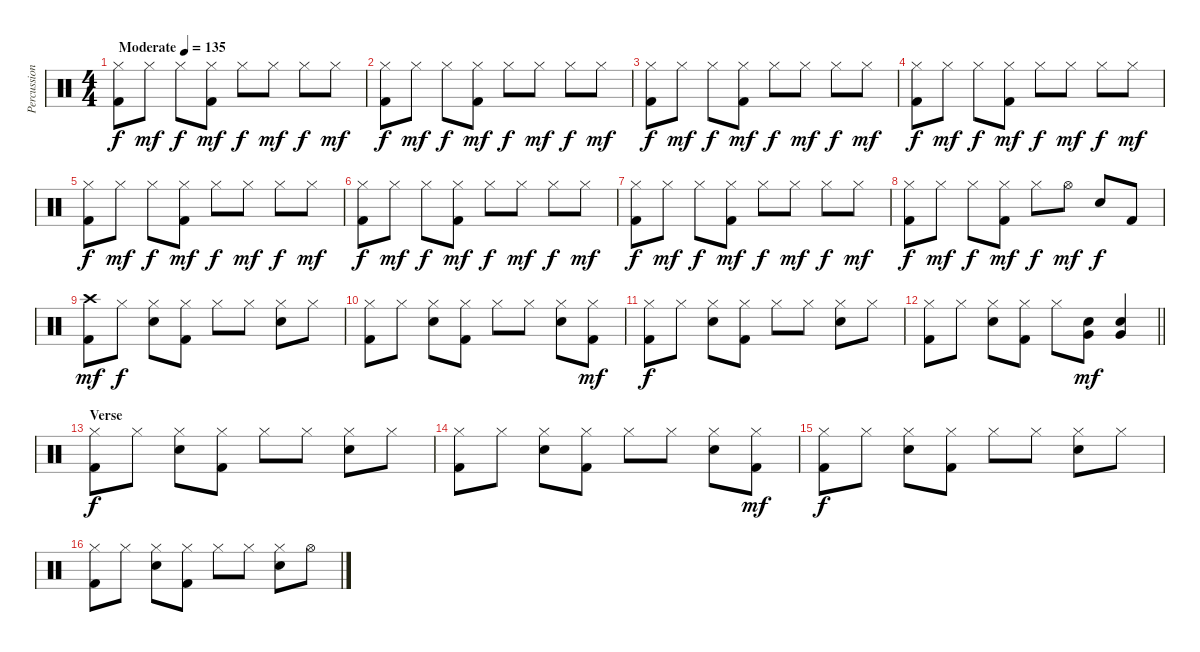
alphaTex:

\track ("Percussion" "Percussion") {instrument percussion}
\staff {score}
\articulation defaults
\ts (4 4)
\tempo (135 "Moderate")
\clef neutral
\ks c
("Hi-Hat (closed)" "Kick (hit) 2").8{dy f} "Hi-Hat (closed)".8{dy mf} "Hi-Hat (closed)".8{dy f} ("Hi-Hat (closed)" "Kick (hit) 2").8{dy mf} "Hi-Hat (closed)".8{dy f} "Hi-Hat (closed)".8{dy mf} "Hi-Hat (closed)".8{dy f} "Hi-Hat (closed)".8{dy mf} |
("Hi-Hat (closed)" "Kick (hit) 2").8{dy f} "Hi-Hat (closed)".8{dy mf} "Hi-Hat (closed)".8{dy f} ("Hi-Hat (closed)" "Kick (hit) 2").8{dy mf} "Hi-Hat (closed)".8{dy f} "Hi-Hat (closed)".8{dy mf} "Hi-Hat (closed)".8{dy f} "Hi-Hat (closed)".8{dy mf} |
("Hi-Hat (closed)" "Kick (hit) 2").8{dy f} "Hi-Hat (closed)".8{dy mf} "Hi-Hat (closed)".8{dy f} ("Hi-Hat (closed)" "Kick (hit) 2").8{dy mf} "Hi-Hat (closed)".8{dy f} "Hi-Hat (closed)".8{dy mf} "Hi-Hat (closed)".8{dy f} "Hi-Hat (closed)".8{dy mf} |
("Hi-Hat (closed)" "Kick (hit) 2").8{dy f} "Hi-Hat (closed)".8{dy mf} "Hi-Hat (closed)".8{dy f} ("Hi-Hat (closed)" "Kick (hit) 2").8{dy mf} "Hi-Hat (closed)".8{dy f} "Hi-Hat (closed)".8{dy mf} "Hi-Hat (closed)".8{dy f} "Hi-Hat (closed)".8{dy mf} |
("Hi-Hat (closed)" "Kick (hit) 2").8{dy f} "Hi-Hat (closed)".8{dy mf} "Hi-Hat (closed)".8{dy f} ("Hi-Hat (closed)" "Kick (hit) 2").8{dy mf} "Hi-Hat (closed)".8{dy f} "Hi-Hat (closed)".8{dy mf} "Hi-Hat (closed)".8{dy f} "Hi-Hat (closed)".8{dy mf} |
("Hi-Hat (closed)" "Kick (hit) 2").8{dy f} "Hi-Hat (closed)".8{dy mf} "Hi-Hat (closed)".8{dy f} ("Hi-Hat (closed)" "Kick (hit) 2").8{dy mf} "Hi-Hat (closed)".8{dy f} "Hi-Hat (closed)".8{dy mf} "Hi-Hat (closed)".8{dy f} "Hi-Hat (closed)".8{dy mf} |
("Hi-Hat (closed)" "Kick (hit) 2").8{dy f} "Hi-Hat (closed)".8{dy mf} "Hi-Hat (closed)".8{dy f} ("Hi-Hat (closed)" "Kick (hit) 2").8{dy mf} "Hi-Hat (closed)".8{dy f} "Hi-Hat (closed)".8{dy mf} "Hi-Hat (closed)".8{dy f} "Hi-Hat (closed)".8{dy mf} |
("Hi-Hat (closed)" "Kick (hit) 2").8{dy f} "Hi-Hat (closed)".8{dy mf} "Hi-Hat (closed)".8{dy f} ("Hi-Hat (closed)" "Kick (hit) 2").8{dy mf} "Hi-Hat (closed)".8{dy f} "Hi-Hat (open)".8{dy mf} "Electric Snare (hit)".8{dy f} "Kick (hit) 2".8 |
("Crash high (hit)" "Kick (hit) 2").8{dy mf} "Hi-Hat (closed)".8{dy f} ("Hi-Hat (closed)" "Electric Snare (hit)").8 ("Hi-Hat (closed)" "Kick (hit) 2").8 "Hi-Hat (closed)".8 "Hi-Hat (closed)".8 ("Hi-Hat (closed)" "Electric Snare (hit)").8 "Hi-Hat (closed)".8 |
("Hi-Hat (closed)" "Kick (hit) 2").8 "Hi-Hat (closed)".8 ("Hi-Hat (closed)" "Electric Snare (hit)").8 ("Hi-Hat (closed)" "Kick (hit) 2").8 "Hi-Hat (closed)".8 "Hi-Hat (closed)".8 ("Hi-Hat (closed)" "Electric Snare (hit)").8 ("Hi-Hat (closed)" "Kick (hit) 2").8{dy mf} |
("Hi-Hat (closed)" "Kick (hit) 2").8{dy f} "Hi-Hat (closed)".8 ("Hi-Hat (closed)" "Electric Snare (hit)").8 ("Hi-Hat (closed)" "Kick (hit) 2").8 "Hi-Hat (closed)".8 "Hi-Hat (closed)".8 ("Hi-Hat (closed)" "Electric Snare (hit)").8 "Hi-Hat (closed)".8 |
\barLineRight lightlight
("Hi-Hat (closed)" "Kick (hit) 2").8 "Hi-Hat (closed)".8 ("Hi-Hat (closed)" "Electric Snare (hit)").8 ("Hi-Hat (closed)" "Kick (hit) 2").8 "Hi-Hat (closed)".8 ("Very Low Tom (hit)" "Electric Snare (hit)").8{dy mf} ("Very Low Tom (hit)" "Electric Snare (hit)").4 |
\section ("" "Verse")
("Hi-Hat (closed)" "Kick (hit) 2").8{dy f} "Hi-Hat (closed)".8 ("Hi-Hat (closed)" "Electric Snare (hit)").8 ("Hi-Hat (closed)" "Kick (hit) 2").8 "Hi-Hat (closed)".8 "Hi-Hat (closed)".8 ("Hi-Hat (closed)" "Electric Snare (hit)").8 "Hi-Hat (closed)".8 |
("Hi-Hat (closed)" "Kick (hit) 2").8 "Hi-Hat (closed)".8 ("Hi-Hat (closed)" "Electric Snare (hit)").8 ("Hi-Hat (closed)" "Kick (hit) 2").8 "Hi-Hat (closed)".8 "Hi-Hat (closed)".8 ("Hi-Hat (closed)" "Electric Snare (hit)").8 ("Hi-Hat (closed)" "Kick (hit) 2").8{dy mf} |
("Hi-Hat (closed)" "Kick (hit) 2").8{dy f} "Hi-Hat (closed)".8 ("Hi-Hat (closed)" "Electric Snare (hit)").8 ("Hi-Hat (closed)" "Kick (hit) 2").8 "Hi-Hat (closed)".8 "Hi-Hat (closed)".8 ("Hi-Hat (closed)" "Electric Snare (hit)").8 "Hi-Hat (closed)".8 |
("Hi-Hat (closed)" "Kick (hit) 2").8 "Hi-Hat (closed)".8 ("Hi-Hat (closed)" "Electric Snare (hit)").8 ("Hi-Hat (closed)" "Kick (hit) 2").8 "Hi-Hat (closed)".8 "Hi-Hat (closed)".8 ("Hi-Hat (closed)" "Electric Snare (hit)").8 "Hi-Hat (open)".8
